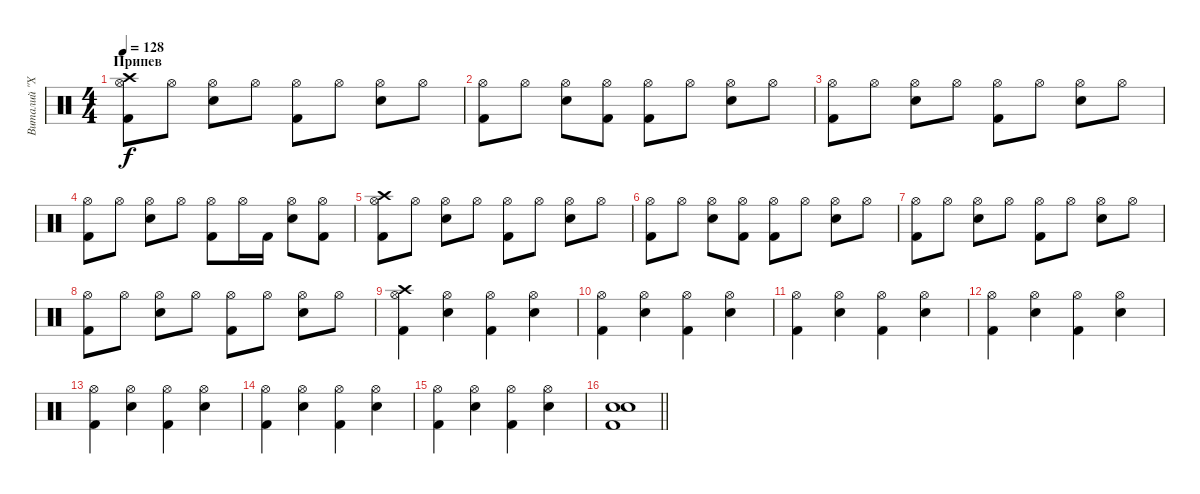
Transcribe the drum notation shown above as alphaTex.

\track ("Виталий \"Хамер\" Лядов" "Виталий \"Х") {instrument percussion}
\staff {score}
\articulation defaults
\ts (4 4)
\section ("" "Припев")
\tempo 128
\clef neutral
\ks c
("Kick (hit) 2" "Hi-Hat (open)" "Crash high (hit)").8{dy f} "Hi-Hat (open)".8 ("Electric Snare (hit)" "Hi-Hat (open)").8 "Hi-Hat (open)".8 ("Kick (hit) 2" "Hi-Hat (open)").8 "Hi-Hat (open)".8 ("Electric Snare (hit)" "Hi-Hat (open)").8 "Hi-Hat (open)".8 |
("Kick (hit) 2" "Hi-Hat (open)").8 "Hi-Hat (open)".8 ("Electric Snare (hit)" "Hi-Hat (open)").8 ("Kick (hit) 2" "Hi-Hat (open)").8 ("Kick (hit) 2" "Hi-Hat (open)").8 "Hi-Hat (open)".8 ("Electric Snare (hit)" "Hi-Hat (open)").8 "Hi-Hat (open)".8 |
("Kick (hit) 2" "Hi-Hat (open)").8 "Hi-Hat (open)".8 ("Electric Snare (hit)" "Hi-Hat (open)").8 "Hi-Hat (open)".8 ("Kick (hit) 2" "Hi-Hat (open)").8 "Hi-Hat (open)".8 ("Electric Snare (hit)" "Hi-Hat (open)").8 "Hi-Hat (open)".8 |
("Kick (hit) 2" "Hi-Hat (open)").8 "Hi-Hat (open)".8 ("Electric Snare (hit)" "Hi-Hat (open)").8 "Hi-Hat (open)".8 ("Kick (hit) 2" "Hi-Hat (open)").8 "Hi-Hat (open)".16 "Kick (hit) 2".16 ("Electric Snare (hit)" "Hi-Hat (open)").8 ("Kick (hit) 2" "Hi-Hat (open)").8 |
("Kick (hit) 2" "Hi-Hat (open)" "Crash high (hit)").8 "Hi-Hat (open)".8 ("Electric Snare (hit)" "Hi-Hat (open)").8 "Hi-Hat (open)".8 ("Kick (hit) 2" "Hi-Hat (open)").8 "Hi-Hat (open)".8 ("Electric Snare (hit)" "Hi-Hat (open)").8 "Hi-Hat (open)".8 |
("Kick (hit) 2" "Hi-Hat (open)").8 "Hi-Hat (open)".8 ("Electric Snare (hit)" "Hi-Hat (open)").8 ("Kick (hit) 2" "Hi-Hat (open)").8 ("Kick (hit) 2" "Hi-Hat (open)").8 "Hi-Hat (open)".8 ("Electric Snare (hit)" "Hi-Hat (open)").8 "Hi-Hat (open)".8 |
("Kick (hit) 2" "Hi-Hat (open)").8 "Hi-Hat (open)".8 ("Electric Snare (hit)" "Hi-Hat (open)").8 "Hi-Hat (open)".8 ("Kick (hit) 2" "Hi-Hat (open)").8 "Hi-Hat (open)".8 ("Electric Snare (hit)" "Hi-Hat (open)").8 "Hi-Hat (open)".8 |
("Kick (hit) 2" "Hi-Hat (open)").8 "Hi-Hat (open)".8 ("Electric Snare (hit)" "Hi-Hat (open)").8 "Hi-Hat (open)".8 ("Kick (hit) 2" "Hi-Hat (open)").8 "Hi-Hat (open)".8 ("Electric Snare (hit)" "Hi-Hat (open)").8 "Hi-Hat (open)".8 |
("Kick (hit) 2" "Hi-Hat (open)" "Crash high (hit)").4 ("Electric Snare (hit)" "Hi-Hat (open)").4 ("Kick (hit) 2" "Hi-Hat (open)").4 ("Electric Snare (hit)" "Hi-Hat (open)").4 |
("Kick (hit) 2" "Hi-Hat (open)").4 ("Electric Snare (hit)" "Hi-Hat (open)").4 ("Kick (hit) 2" "Hi-Hat (open)").4 ("Electric Snare (hit)" "Hi-Hat (open)").4 |
("Kick (hit) 2" "Hi-Hat (open)").4 ("Electric Snare (hit)" "Hi-Hat (open)").4 ("Kick (hit) 2" "Hi-Hat (open)").4 ("Electric Snare (hit)" "Hi-Hat (open)").4 |
("Kick (hit) 2" "Hi-Hat (open)").4 ("Electric Snare (hit)" "Hi-Hat (open)").4 ("Kick (hit) 2" "Hi-Hat (open)").4 ("Electric Snare (hit)" "Hi-Hat (open)").4 |
("Kick (hit) 2" "Hi-Hat (open)").4 ("Electric Snare (hit)" "Hi-Hat (open)").4 ("Kick (hit) 2" "Hi-Hat (open)").4 ("Electric Snare (hit)" "Hi-Hat (open)").4 |
("Kick (hit) 2" "Hi-Hat (open)").4 ("Electric Snare (hit)" "Hi-Hat (open)").4 ("Kick (hit) 2" "Hi-Hat (open)").4 ("Electric Snare (hit)" "Hi-Hat (open)").4 |
("Kick (hit) 2" "Hi-Hat (open)").4 ("Electric Snare (hit)" "Hi-Hat (open)").4 ("Kick (hit) 2" "Hi-Hat (open)").4 ("Electric Snare (hit)" "Hi-Hat (open)").4 |
\barLineRight lightlight
("Kick (hit) 2" "Electric Snare (hit)" "Electric Snare (hit)").1
